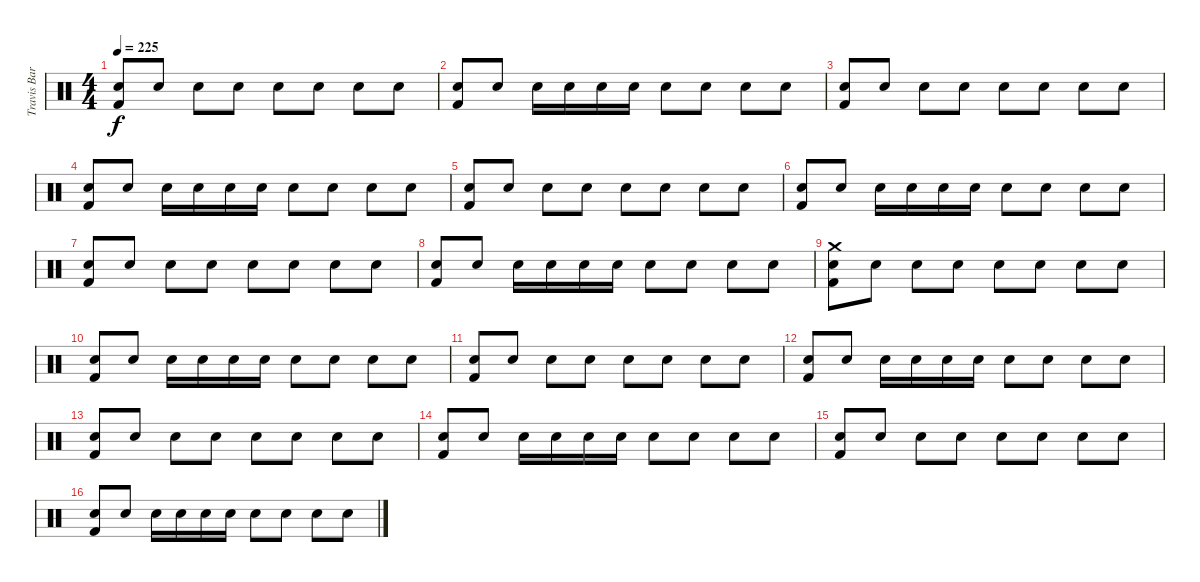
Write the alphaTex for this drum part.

\track ("Travis Barker (Drums)" "Travis Bar") {instrument percussion}
\staff {score}
\articulation defaults
\ts (4 4)
\tempo 225
\clef neutral
\ks c
("Snare (hit) 2" "Kick (hit) 2").8{dy f} "Snare (hit) 2".8 "Snare (hit) 2".8 "Electric Snare (hit)".8 "Snare (hit) 2".8 "Snare (hit) 2".8 "Electric Snare (hit)".8 "Snare (hit) 2".8 |
("Snare (hit) 2" "Kick (hit) 2").8 "Snare (hit) 2".8 "Snare (hit) 2".16 "Snare (hit) 2".16 "Snare (hit) 2".16 "Snare (hit) 2".16 "Electric Snare (hit)".8 "Electric Snare (hit)".8 "Snare (hit) 2".8 "Snare (hit) 2".8 |
("Snare (hit) 2" "Kick (hit) 2").8 "Snare (hit) 2".8 "Snare (hit) 2".8 "Electric Snare (hit)".8 "Snare (hit) 2".8 "Snare (hit) 2".8 "Electric Snare (hit)".8 "Snare (hit) 2".8 |
("Snare (hit) 2" "Kick (hit) 2").8 "Snare (hit) 2".8 "Snare (hit) 2".16 "Snare (hit) 2".16 "Snare (hit) 2".16 "Snare (hit) 2".16 "Electric Snare (hit)".8 "Electric Snare (hit)".8 "Snare (hit) 2".8 "Snare (hit) 2".8 |
("Snare (hit) 2" "Kick (hit) 2").8 "Snare (hit) 2".8 "Snare (hit) 2".8 "Electric Snare (hit)".8 "Snare (hit) 2".8 "Snare (hit) 2".8 "Electric Snare (hit)".8 "Snare (hit) 2".8 |
("Snare (hit) 2" "Kick (hit) 2").8 "Snare (hit) 2".8 "Snare (hit) 2".16 "Snare (hit) 2".16 "Snare (hit) 2".16 "Snare (hit) 2".16 "Electric Snare (hit)".8 "Electric Snare (hit)".8 "Snare (hit) 2".8 "Snare (hit) 2".8 |
("Snare (hit) 2" "Kick (hit) 2").8 "Snare (hit) 2".8 "Snare (hit) 2".8 "Electric Snare (hit)".8 "Snare (hit) 2".8 "Snare (hit) 2".8 "Electric Snare (hit)".8 "Snare (hit) 2".8 |
("Snare (hit) 2" "Kick (hit) 2").8 "Snare (hit) 2".8 "Snare (hit) 2".16 "Snare (hit) 2".16 "Snare (hit) 2".16 "Snare (hit) 2".16 "Electric Snare (hit)".8 "Electric Snare (hit)".8 "Snare (hit) 2".8 "Snare (hit) 2".8 |
("Snare (hit) 2" "Kick (hit) 2" "Crash medium (hit)").8 "Snare (hit) 2".8 "Snare (hit) 2".8 "Electric Snare (hit)".8 "Snare (hit) 2".8 "Snare (hit) 2".8 "Electric Snare (hit)".8 "Snare (hit) 2".8 |
("Snare (hit) 2" "Kick (hit) 2").8 "Snare (hit) 2".8 "Snare (hit) 2".16 "Snare (hit) 2".16 "Snare (hit) 2".16 "Snare (hit) 2".16 "Electric Snare (hit)".8 "Electric Snare (hit)".8 "Snare (hit) 2".8 "Snare (hit) 2".8 |
("Snare (hit) 2" "Kick (hit) 2").8 "Snare (hit) 2".8 "Snare (hit) 2".8 "Electric Snare (hit)".8 "Snare (hit) 2".8 "Snare (hit) 2".8 "Electric Snare (hit)".8 "Snare (hit) 2".8 |
("Snare (hit) 2" "Kick (hit) 2").8 "Snare (hit) 2".8 "Snare (hit) 2".16 "Snare (hit) 2".16 "Snare (hit) 2".16 "Snare (hit) 2".16 "Electric Snare (hit)".8 "Electric Snare (hit)".8 "Snare (hit) 2".8 "Snare (hit) 2".8 |
("Snare (hit) 2" "Kick (hit) 2").8 "Snare (hit) 2".8 "Snare (hit) 2".8 "Electric Snare (hit)".8 "Snare (hit) 2".8 "Snare (hit) 2".8 "Electric Snare (hit)".8 "Snare (hit) 2".8 |
("Snare (hit) 2" "Kick (hit) 2").8 "Snare (hit) 2".8 "Snare (hit) 2".16 "Snare (hit) 2".16 "Snare (hit) 2".16 "Snare (hit) 2".16 "Electric Snare (hit)".8 "Electric Snare (hit)".8 "Snare (hit) 2".8 "Snare (hit) 2".8 |
("Snare (hit) 2" "Kick (hit) 2").8 "Snare (hit) 2".8 "Snare (hit) 2".8 "Electric Snare (hit)".8 "Snare (hit) 2".8 "Snare (hit) 2".8 "Electric Snare (hit)".8 "Snare (hit) 2".8 |
("Snare (hit) 2" "Kick (hit) 2").8 "Snare (hit) 2".8 "Snare (hit) 2".16 "Snare (hit) 2".16 "Snare (hit) 2".16 "Snare (hit) 2".16 "Electric Snare (hit)".8 "Electric Snare (hit)".8 "Snare (hit) 2".8 "Snare (hit) 2".8
